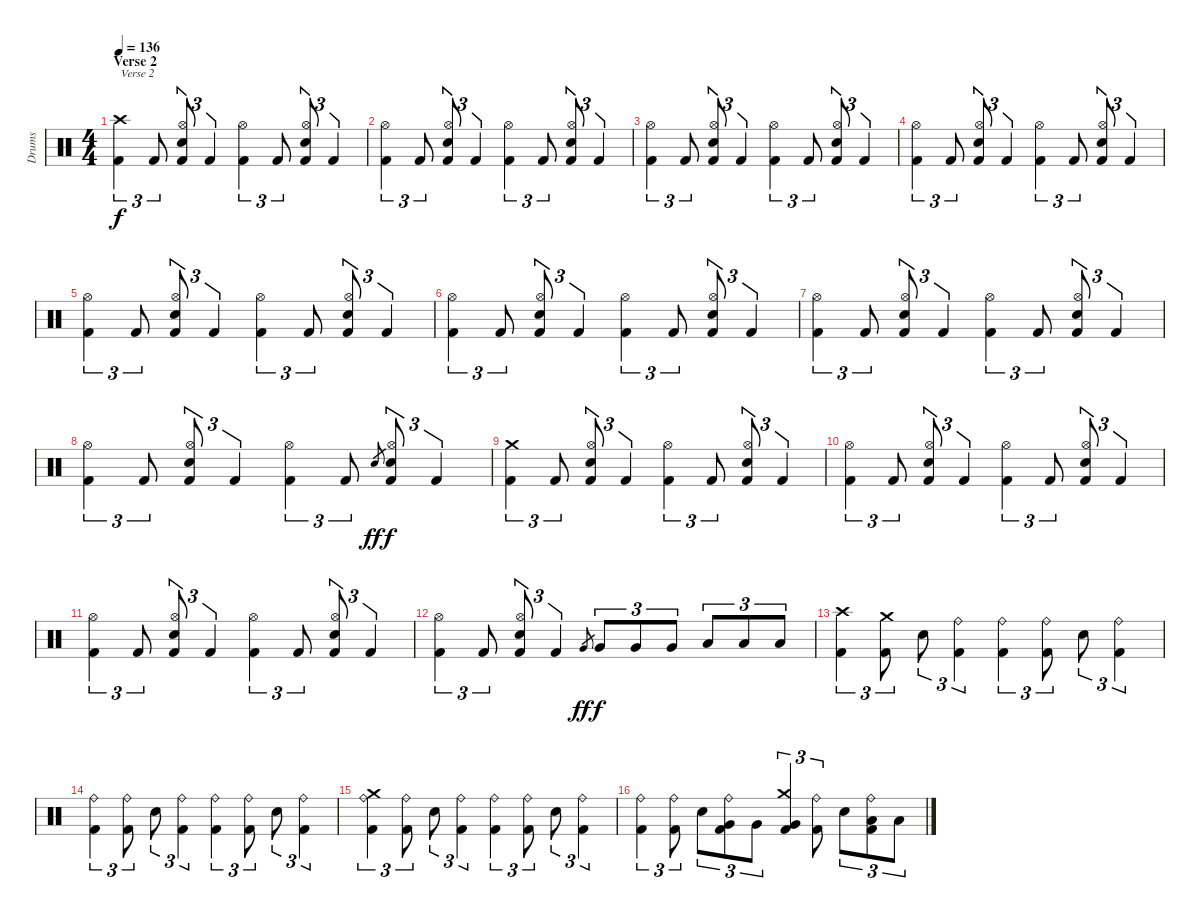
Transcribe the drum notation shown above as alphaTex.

\track ("Drums" "Drums") {instrument percussion}
\staff {score}
\articulation defaults
\ts (4 4)
\section ("" "Verse 2")
\tempo 136
\clef neutral
\ks c
("Crash high (hit)" "Kick (hit) 2").4{tu (3 2) txt "Verse 2" dy f} "Kick (hit) 2".8{tu (3 2)} ("Hi-Hat (open)" "Electric Snare (hit)" "Kick (hit) 2").8{tu (3 2)} "Kick (hit) 2".4{tu (3 2)} ("Hi-Hat (open)" "Kick (hit) 2").4{tu (3 2)} "Kick (hit) 2".8{tu (3 2)} ("Hi-Hat (open)" "Electric Snare (hit)" "Kick (hit) 2").8{tu (3 2)} "Kick (hit) 2".4{tu (3 2)} |
("Hi-Hat (open)" "Kick (hit) 2").4{tu (3 2)} "Kick (hit) 2".8{tu (3 2)} ("Hi-Hat (open)" "Electric Snare (hit)" "Kick (hit) 2").8{tu (3 2)} "Kick (hit) 2".4{tu (3 2)} ("Hi-Hat (open)" "Kick (hit) 2").4{tu (3 2)} "Kick (hit) 2".8{tu (3 2)} ("Hi-Hat (open)" "Electric Snare (hit)" "Kick (hit) 2").8{tu (3 2)} "Kick (hit) 2".4{tu (3 2)} |
("Hi-Hat (open)" "Kick (hit) 2").4{tu (3 2)} "Kick (hit) 2".8{tu (3 2)} ("Hi-Hat (open)" "Electric Snare (hit)" "Kick (hit) 2").8{tu (3 2)} "Kick (hit) 2".4{tu (3 2)} ("Hi-Hat (open)" "Kick (hit) 2").4{tu (3 2)} "Kick (hit) 2".8{tu (3 2)} ("Hi-Hat (open)" "Electric Snare (hit)" "Kick (hit) 2").8{tu (3 2)} "Kick (hit) 2".4{tu (3 2)} |
("Hi-Hat (open)" "Kick (hit) 2").4{tu (3 2)} "Kick (hit) 2".8{tu (3 2)} ("Hi-Hat (open)" "Electric Snare (hit)" "Kick (hit) 2").8{tu (3 2)} "Kick (hit) 2".4{tu (3 2)} ("Hi-Hat (open)" "Kick (hit) 2").4{tu (3 2)} "Kick (hit) 2".8{tu (3 2)} ("Hi-Hat (open)" "Electric Snare (hit)" "Kick (hit) 2").8{tu (3 2)} "Kick (hit) 2".4{tu (3 2)} |
("Hi-Hat (open)" "Kick (hit) 2").4{tu (3 2)} "Kick (hit) 2".8{tu (3 2)} ("Hi-Hat (open)" "Electric Snare (hit)" "Kick (hit) 2").8{tu (3 2)} "Kick (hit) 2".4{tu (3 2)} ("Hi-Hat (open)" "Kick (hit) 2").4{tu (3 2)} "Kick (hit) 2".8{tu (3 2)} ("Hi-Hat (open)" "Electric Snare (hit)" "Kick (hit) 2").8{tu (3 2)} "Kick (hit) 2".4{tu (3 2)} |
("Hi-Hat (open)" "Kick (hit) 2").4{tu (3 2)} "Kick (hit) 2".8{tu (3 2)} ("Hi-Hat (open)" "Electric Snare (hit)" "Kick (hit) 2").8{tu (3 2)} "Kick (hit) 2".4{tu (3 2)} ("Hi-Hat (open)" "Kick (hit) 2").4{tu (3 2)} "Kick (hit) 2".8{tu (3 2)} ("Hi-Hat (open)" "Electric Snare (hit)" "Kick (hit) 2").8{tu (3 2)} "Kick (hit) 2".4{tu (3 2)} |
("Hi-Hat (open)" "Kick (hit) 2").4{tu (3 2)} "Kick (hit) 2".8{tu (3 2)} ("Hi-Hat (open)" "Electric Snare (hit)" "Kick (hit) 2").8{tu (3 2)} "Kick (hit) 2".4{tu (3 2)} ("Hi-Hat (open)" "Kick (hit) 2").4{tu (3 2)} "Kick (hit) 2".8{tu (3 2)} ("Hi-Hat (open)" "Electric Snare (hit)" "Kick (hit) 2").8{tu (3 2)} "Kick (hit) 2".4{tu (3 2)} |
("Hi-Hat (open)" "Kick (hit) 2").4{tu (3 2)} "Kick (hit) 2".8{tu (3 2)} ("Hi-Hat (open)" "Electric Snare (hit)" "Kick (hit) 2").8{tu (3 2)} "Kick (hit) 2".4{tu (3 2)} ("Hi-Hat (open)" "Kick (hit) 2").4{tu (3 2)} "Kick (hit) 2".8{tu (3 2)} "Electric Snare (hit)".8{gr dy ff} ("Hi-Hat (open)" "Electric Snare (hit)" "Kick (hit) 2").8{tu (3 2) dy f} "Kick (hit) 2".4{tu (3 2)} |
("Crash medium (hit)" "Kick (hit) 2").4{tu (3 2)} "Kick (hit) 2".8{tu (3 2)} ("Hi-Hat (open)" "Electric Snare (hit)" "Kick (hit) 2").8{tu (3 2)} "Kick (hit) 2".4{tu (3 2)} ("Hi-Hat (open)" "Kick (hit) 2").4{tu (3 2)} "Kick (hit) 2".8{tu (3 2)} ("Hi-Hat (open)" "Electric Snare (hit)" "Kick (hit) 2").8{tu (3 2)} "Kick (hit) 2".4{tu (3 2)} |
("Hi-Hat (open)" "Kick (hit) 2").4{tu (3 2)} "Kick (hit) 2".8{tu (3 2)} ("Hi-Hat (open)" "Electric Snare (hit)" "Kick (hit) 2").8{tu (3 2)} "Kick (hit) 2".4{tu (3 2)} ("Hi-Hat (open)" "Kick (hit) 2").4{tu (3 2)} "Kick (hit) 2".8{tu (3 2)} ("Hi-Hat (open)" "Electric Snare (hit)" "Kick (hit) 2").8{tu (3 2)} "Kick (hit) 2".4{tu (3 2)} |
("Hi-Hat (open)" "Kick (hit) 2").4{tu (3 2)} "Kick (hit) 2".8{tu (3 2)} ("Hi-Hat (open)" "Electric Snare (hit)" "Kick (hit) 2").8{tu (3 2)} "Kick (hit) 2".4{tu (3 2)} ("Hi-Hat (open)" "Kick (hit) 2").4{tu (3 2)} "Kick (hit) 2".8{tu (3 2)} ("Hi-Hat (open)" "Electric Snare (hit)" "Kick (hit) 2").8{tu (3 2)} "Kick (hit) 2".4{tu (3 2)} |
("Hi-Hat (open)" "Kick (hit) 2").4{tu (3 2)} "Kick (hit) 2".8{tu (3 2)} ("Hi-Hat (open)" "Electric Snare (hit)" "Kick (hit) 2").8{tu (3 2)} "Kick (hit) 2".4{tu (3 2)} "Very Low Tom (hit)".8{gr dy ff} "Very Low Tom (hit)".8{tu (3 2) dy f} "Very Low Tom (hit)".8{tu (3 2)} "Very Low Tom (hit)".8{tu (3 2)} "Low Floor Tom (hit)".8{tu (3 2)} "Low Floor Tom (hit)".8{tu (3 2)} "Low Floor Tom (hit)".8{tu (3 2)} |
("Crash high (hit)" "Kick (hit) 2").4{tu (3 2)} ("Crash medium (hit)" "Kick (hit) 2").8{tu (3 2)} "Electric Snare (hit)".8{tu (3 2)} ("Ride (bell)" "Kick (hit) 2").4{tu (3 2)} ("Ride (bell)" "Kick (hit) 2").4{tu (3 2)} ("Ride (bell)" "Kick (hit) 2").8{tu (3 2)} "Electric Snare (hit)".8{tu (3 2)} ("Ride (bell)" "Kick (hit) 2").4{tu (3 2)} |
("Ride (bell)" "Kick (hit) 2").4{tu (3 2)} ("Ride (bell)" "Kick (hit) 2").8{tu (3 2)} "Electric Snare (hit)".8{tu (3 2)} ("Ride (bell)" "Kick (hit) 2").4{tu (3 2)} ("Ride (bell)" "Kick (hit) 2").4{tu (3 2)} ("Ride (bell)" "Kick (hit) 2").8{tu (3 2)} "Electric Snare (hit)".8{tu (3 2)} ("Ride (bell)" "Kick (hit) 2").4{tu (3 2)} |
("Crash medium (hit)" "Ride (bell)" "Kick (hit) 2").4{tu (3 2)} ("Ride (bell)" "Kick (hit) 2").8{tu (3 2)} "Electric Snare (hit)".8{tu (3 2)} ("Ride (bell)" "Kick (hit) 2").4{tu (3 2)} ("Ride (bell)" "Kick (hit) 2").4{tu (3 2)} ("Ride (bell)" "Kick (hit) 2").8{tu (3 2)} "Electric Snare (hit)".8{tu (3 2)} ("Ride (bell)" "Kick (hit) 2").4{tu (3 2)} |
("Ride (bell)" "Kick (hit) 2").4{tu (3 2)} ("Ride (bell)" "Kick (hit) 2").8{tu (3 2)} "Electric Snare (hit)".8{tu (3 2)} ("Ride (bell)" "Very Low Tom (hit)" "Kick (hit) 2").8{tu (3 2)} "Very Low Tom (hit)".8{tu (3 2)} ("Crash medium (hit)" "Very Low Tom (hit)" "Kick (hit) 2").4{tu (3 2)} ("Ride (bell)" "Kick (hit) 2").8{tu (3 2)} "Electric Snare (hit)".8{tu (3 2)} ("Ride (bell)" "Low Floor Tom (hit)" "Kick (hit) 2").8{tu (3 2)} "Low Floor Tom (hit)".8{tu (3 2)}
